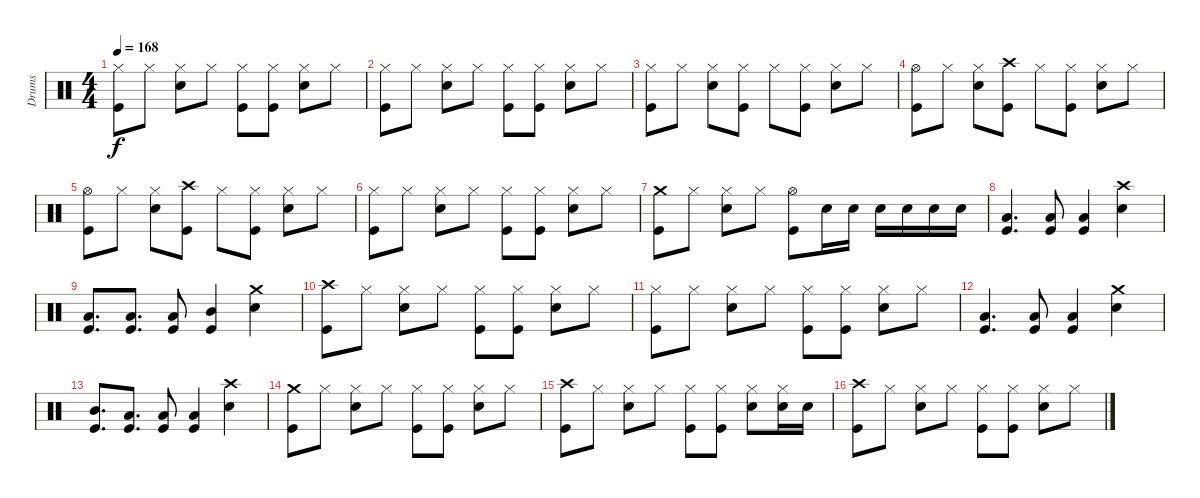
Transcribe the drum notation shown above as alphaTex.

\track ("Drums" "Drums") {instrument percussion}
\staff {score}
\articulation defaults
\ts (4 4)
\tempo 168
\clef neutral
\ks c
("Hi-Hat (closed)" "Kick (hit)").8{dy f} "Hi-Hat (closed)".8 ("Hi-Hat (closed)" "Snare (hit) 2").8 "Hi-Hat (closed)".8 ("Hi-Hat (closed)" "Kick (hit)").8 ("Hi-Hat (closed)" "Kick (hit)").8 ("Hi-Hat (closed)" "Snare (hit) 2").8 "Hi-Hat (closed)".8 |
("Hi-Hat (closed)" "Kick (hit)").8 "Hi-Hat (closed)".8 ("Hi-Hat (closed)" "Snare (hit) 2").8 "Hi-Hat (closed)".8 ("Hi-Hat (closed)" "Kick (hit)").8 ("Hi-Hat (closed)" "Kick (hit)").8 ("Hi-Hat (closed)" "Snare (hit) 2").8 "Hi-Hat (closed)".8 |
("Hi-Hat (closed)" "Kick (hit)").8 "Hi-Hat (closed)".8 ("Hi-Hat (closed)" "Snare (hit) 2").8 ("Hi-Hat (closed)" "Kick (hit)").8 "Hi-Hat (closed)".8 ("Hi-Hat (closed)" "Kick (hit)").8 ("Hi-Hat (closed)" "Snare (hit) 2").8 "Hi-Hat (closed)".8 |
("Hi-Hat (open)" "Kick (hit)").8 "Hi-Hat (closed)".8 ("Hi-Hat (closed)" "Snare (hit) 2").8 ("Crash high (hit)" "Kick (hit)").8 "Hi-Hat (closed)".8 ("Hi-Hat (closed)" "Kick (hit)").8 ("Hi-Hat (closed)" "Snare (hit) 2").8 "Hi-Hat (closed)".8 |
("Hi-Hat (open)" "Kick (hit)").8 "Hi-Hat (closed)".8 ("Hi-Hat (closed)" "Snare (hit) 2").8 ("Crash high (hit)" "Kick (hit)").8 "Hi-Hat (closed)".8 ("Hi-Hat (closed)" "Kick (hit)").8 ("Hi-Hat (closed)" "Snare (hit) 2").8 "Hi-Hat (closed)".8 |
("Hi-Hat (closed)" "Kick (hit)").8 "Hi-Hat (closed)".8 ("Hi-Hat (closed)" "Snare (hit) 2").8 "Hi-Hat (closed)".8 ("Hi-Hat (closed)" "Kick (hit)").8 ("Hi-Hat (closed)" "Kick (hit)").8 ("Hi-Hat (closed)" "Snare (hit) 2").8 "Hi-Hat (closed)".8 |
("Crash medium (hit)" "Kick (hit)").8 "Hi-Hat (closed)".8 ("Hi-Hat (closed)" "Snare (hit) 2").8 "Hi-Hat (closed)".8 ("Hi-Hat (open)" "Kick (hit)").8 "Snare (hit) 2".16 "Snare (hit) 2".16 "Snare (hit) 2".16 "Snare (hit) 2".16 "Snare (hit) 2".16 "Snare (hit) 2".16 |
("Low Floor Tom (hit)" "Kick (hit)").4{d} ("Low Floor Tom (hit)" "Kick (hit)").8 ("Low Floor Tom (hit)" "Kick (hit)").4 ("Crash high (hit)" "Snare (hit) 2").4 |
("Low Floor Tom (hit)" "Kick (hit)").8{d} ("Low Floor Tom (hit)" "Kick (hit)").8{d} ("Low Tom (hit)" "Kick (hit)").8 ("Mid Tom (hit)" "Kick (hit)").4 ("Crash medium (hit)" "Snare (hit) 2").4 |
("Crash high (hit)" "Kick (hit)").8 "Hi-Hat (closed)".8 ("Hi-Hat (closed)" "Snare (hit) 2").8 "Hi-Hat (closed)".8 ("Hi-Hat (closed)" "Kick (hit)").8 ("Hi-Hat (closed)" "Kick (hit)").8 ("Hi-Hat (closed)" "Snare (hit) 2").8 "Hi-Hat (closed)".8 |
("Hi-Hat (closed)" "Kick (hit)").8 "Hi-Hat (closed)".8 ("Hi-Hat (closed)" "Snare (hit) 2").8 "Hi-Hat (closed)".8 ("Hi-Hat (closed)" "Kick (hit)").8 ("Hi-Hat (closed)" "Kick (hit)").8 ("Hi-Hat (closed)" "Snare (hit) 2").8 "Hi-Hat (closed)".8 |
("Low Floor Tom (hit)" "Kick (hit)").4{d} ("Low Floor Tom (hit)" "Kick (hit)").8 ("Low Floor Tom (hit)" "Kick (hit)").4 ("Crash medium (hit)" "Snare (hit) 2").4 |
("Mid Tom (hit)" "Kick (hit)").8{d} ("Low Tom (hit)" "Kick (hit)").8{d} ("Low Floor Tom (hit)" "Kick (hit)").8 ("Low Floor Tom (hit)" "Kick (hit)").4 ("Crash high (hit)" "Snare (hit) 2").4 |
("Crash medium (hit)" "Kick (hit)").8 "Hi-Hat (closed)".8 ("Hi-Hat (closed)" "Snare (hit) 2").8 "Hi-Hat (closed)".8 ("Hi-Hat (closed)" "Kick (hit)").8 ("Hi-Hat (closed)" "Kick (hit)").8 ("Hi-Hat (closed)" "Snare (hit) 2").8 "Hi-Hat (closed)".8 |
("Crash high (hit)" "Kick (hit)").8 "Hi-Hat (closed)".8 ("Hi-Hat (closed)" "Snare (hit) 2").8 "Hi-Hat (closed)".8 ("Hi-Hat (closed)" "Kick (hit)").8 ("Hi-Hat (closed)" "Kick (hit)").8 ("Hi-Hat (closed)" "Snare (hit) 2").8 ("Hi-Hat (closed)" "Snare (hit) 2").16 "Snare (hit) 2".16 |
("Crash high (hit)" "Kick (hit)").8 "Hi-Hat (closed)".8 ("Hi-Hat (closed)" "Snare (hit) 2").8 "Hi-Hat (closed)".8 ("Hi-Hat (closed)" "Kick (hit)").8 ("Hi-Hat (closed)" "Kick (hit)").8 ("Hi-Hat (closed)" "Snare (hit) 2").8 "Hi-Hat (closed)".8
